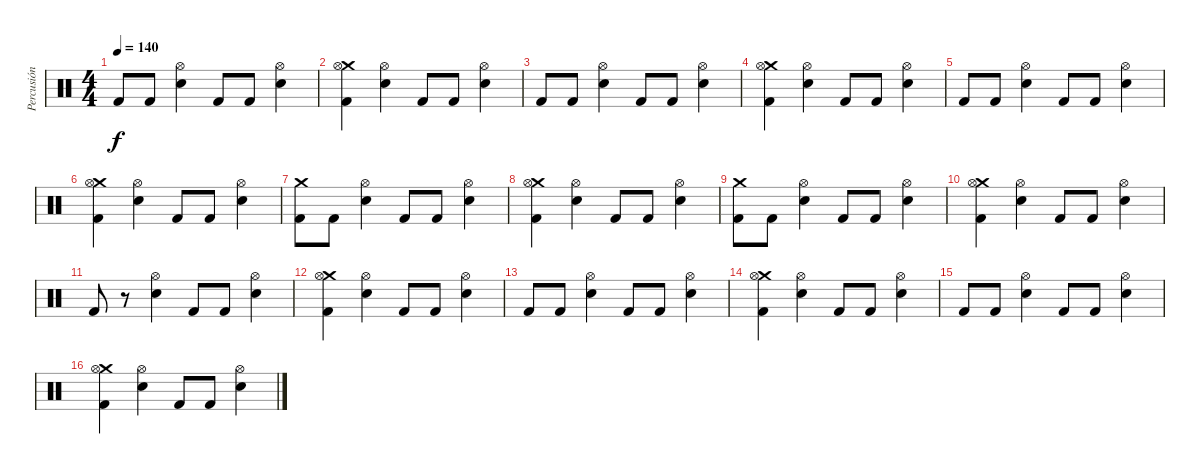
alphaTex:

\track ("Percusión" "Percusión") {instrument percussion}
\staff {score}
\articulation defaults
\ts (4 4)
\tempo 140
\clef neutral
\ks c "Kick (hit) 2".8{dy f} "Kick (hit) 2".8
("Hi-Hat (open)" "Snare (hit) 2").4 "Kick (hit) 2".8 "Kick (hit) 2".8 ("Hi-Hat (open)" "Snare (hit) 2").4 |
("Crash medium (hit)" "Hi-Hat (open)" "Kick (hit) 2").4 ("Hi-Hat (open)" "Snare (hit) 2").4 "Kick (hit) 2".8 "Kick (hit) 2".8 ("Hi-Hat (open)" "Snare (hit) 2").4 |
"Kick (hit) 2".8 "Kick (hit) 2".8 ("Hi-Hat (open)" "Snare (hit) 2").4 "Kick (hit) 2".8 "Kick (hit) 2".8 ("Hi-Hat (open)" "Snare (hit) 2").4 |
("Crash medium (hit)" "Hi-Hat (open)" "Kick (hit) 2").4 ("Hi-Hat (open)" "Snare (hit) 2").4 "Kick (hit) 2".8 "Kick (hit) 2".8 ("Hi-Hat (open)" "Snare (hit) 2").4 |
"Kick (hit) 2".8 "Kick (hit) 2".8 ("Hi-Hat (open)" "Snare (hit) 2").4 "Kick (hit) 2".8 "Kick (hit) 2".8 ("Hi-Hat (open)" "Snare (hit) 2").4 |
("Crash medium (hit)" "Hi-Hat (open)" "Kick (hit) 2").4 ("Hi-Hat (open)" "Snare (hit) 2").4 "Kick (hit) 2".8 "Kick (hit) 2".8 ("Hi-Hat (open)" "Snare (hit) 2").4 |
("Crash medium (hit)" "Kick (hit) 2").8 "Kick (hit) 2".8 ("Hi-Hat (open)" "Snare (hit) 2").4 "Kick (hit) 2".8 "Kick (hit) 2".8 ("Hi-Hat (open)" "Snare (hit) 2").4 |
("Crash medium (hit)" "Hi-Hat (open)" "Kick (hit) 2").4 ("Hi-Hat (open)" "Snare (hit) 2").4 "Kick (hit) 2".8 "Kick (hit) 2".8 ("Hi-Hat (open)" "Snare (hit) 2").4 |
("Crash medium (hit)" "Kick (hit) 2").8 "Kick (hit) 2".8 ("Hi-Hat (open)" "Snare (hit) 2").4 "Kick (hit) 2".8 "Kick (hit) 2".8 ("Hi-Hat (open)" "Snare (hit) 2").4 |
("Crash medium (hit)" "Hi-Hat (open)" "Kick (hit) 2").4 ("Hi-Hat (open)" "Snare (hit) 2").4 "Kick (hit) 2".8 "Kick (hit) 2".8 ("Hi-Hat (open)" "Snare (hit) 2").4 |
"Kick (hit) 2".8 r.8 ("Hi-Hat (open)" "Snare (hit) 2").4 "Kick (hit) 2".8 "Kick (hit) 2".8 ("Hi-Hat (open)" "Snare (hit) 2").4 |
("Crash medium (hit)" "Hi-Hat (open)" "Kick (hit) 2").4 ("Hi-Hat (open)" "Snare (hit) 2").4 "Kick (hit) 2".8 "Kick (hit) 2".8 ("Hi-Hat (open)" "Snare (hit) 2").4 |
"Kick (hit) 2".8 "Kick (hit) 2".8 ("Hi-Hat (open)" "Snare (hit) 2").4 "Kick (hit) 2".8 "Kick (hit) 2".8 ("Hi-Hat (open)" "Snare (hit) 2").4 |
("Crash medium (hit)" "Hi-Hat (open)" "Kick (hit) 2").4 ("Hi-Hat (open)" "Snare (hit) 2").4 "Kick (hit) 2".8 "Kick (hit) 2".8 ("Hi-Hat (open)" "Snare (hit) 2").4 |
"Kick (hit) 2".8 "Kick (hit) 2".8 ("Hi-Hat (open)" "Snare (hit) 2").4 "Kick (hit) 2".8 "Kick (hit) 2".8 ("Hi-Hat (open)" "Snare (hit) 2").4 |
("Crash medium (hit)" "Hi-Hat (open)" "Kick (hit) 2").4 ("Hi-Hat (open)" "Snare (hit) 2").4 "Kick (hit) 2".8 "Kick (hit) 2".8 ("Hi-Hat (open)" "Snare (hit) 2").4
